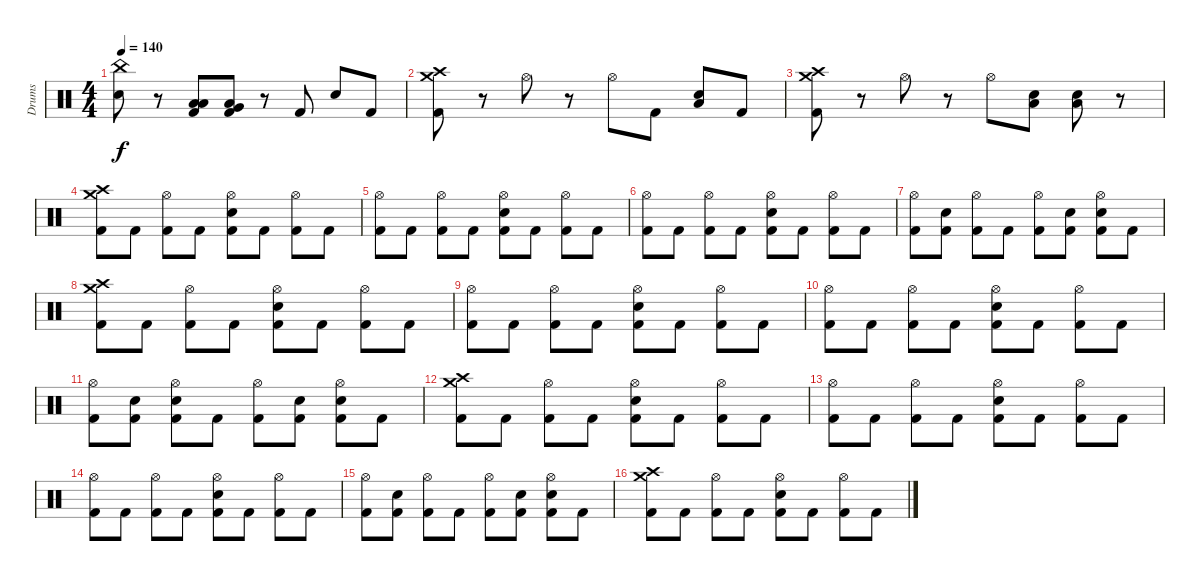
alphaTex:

\track ("Drums" "Drums") {instrument percussion}
\staff {score}
\articulation defaults
\ts (4 4)
\tempo 140
\clef neutral
\ks c
("China (hit)" "Electric Snare (hit)").8{dy f} r.8 ("Low Tom (hit)" "Low Tom (hit)" "Kick (hit) 2").8 ("Very Low Tom (hit)" "Low Tom (hit)" "Kick (hit) 2").8 r.8 "Kick (hit) 2".8 "Electric Snare (hit)".8 "Kick (hit) 2".8 |
("Crash high (hit)" "Crash medium (hit)" "Kick (hit) 2").8 r.8 "Hi-Hat (open)".8 r.8 "Hi-Hat (open)".8 "Kick (hit) 2".8 ("Low Tom (hit)" "Electric Snare (hit)").8 "Kick (hit) 2".8 |
("Crash high (hit)" "Crash medium (hit)" "Kick (hit) 2").8 r.8 "Hi-Hat (open)".8 r.8 "Hi-Hat (open)".8 ("Low Tom (hit)" "Electric Snare (hit)").8 ("Low Tom (hit)" "Electric Snare (hit)").8 r.8 |
("Crash high (hit)" "Crash medium (hit)" "Kick (hit) 2").8 "Kick (hit) 2".8 ("Hi-Hat (open)" "Kick (hit) 2").8 "Kick (hit) 2".8 ("Hi-Hat (open)" "Electric Snare (hit)" "Kick (hit) 2").8 "Kick (hit) 2".8 ("Hi-Hat (open)" "Kick (hit) 2").8 "Kick (hit) 2".8 |
("Hi-Hat (open)" "Kick (hit) 2").8 "Kick (hit) 2".8 ("Hi-Hat (open)" "Kick (hit) 2").8 "Kick (hit) 2".8 ("Hi-Hat (open)" "Electric Snare (hit)" "Kick (hit) 2").8 "Kick (hit) 2".8 ("Hi-Hat (open)" "Kick (hit) 2").8 "Kick (hit) 2".8 |
("Hi-Hat (open)" "Kick (hit) 2").8 "Kick (hit) 2".8 ("Hi-Hat (open)" "Kick (hit) 2").8 "Kick (hit) 2".8 ("Hi-Hat (open)" "Electric Snare (hit)" "Kick (hit) 2").8 "Kick (hit) 2".8 ("Hi-Hat (open)" "Kick (hit) 2").8 "Kick (hit) 2".8 |
("Hi-Hat (open)" "Kick (hit) 2").8 ("Electric Snare (hit)" "Kick (hit) 2").8 ("Hi-Hat (open)" "Kick (hit) 2").8 "Kick (hit) 2".8 ("Hi-Hat (open)" "Kick (hit) 2").8 ("Electric Snare (hit)" "Kick (hit) 2").8 ("Hi-Hat (open)" "Electric Snare (hit)" "Kick (hit) 2").8 "Kick (hit) 2".8 |
("Crash high (hit)" "Crash medium (hit)" "Kick (hit) 2").8 "Kick (hit) 2".8 ("Hi-Hat (open)" "Kick (hit) 2").8 "Kick (hit) 2".8 ("Hi-Hat (open)" "Electric Snare (hit)" "Kick (hit) 2").8 "Kick (hit) 2".8 ("Hi-Hat (open)" "Kick (hit) 2").8 "Kick (hit) 2".8 |
("Hi-Hat (open)" "Kick (hit) 2").8 "Kick (hit) 2".8 ("Hi-Hat (open)" "Kick (hit) 2").8 "Kick (hit) 2".8 ("Hi-Hat (open)" "Electric Snare (hit)" "Kick (hit) 2").8 "Kick (hit) 2".8 ("Hi-Hat (open)" "Kick (hit) 2").8 "Kick (hit) 2".8 |
("Hi-Hat (open)" "Kick (hit) 2").8 "Kick (hit) 2".8 ("Hi-Hat (open)" "Kick (hit) 2").8 "Kick (hit) 2".8 ("Hi-Hat (open)" "Electric Snare (hit)" "Kick (hit) 2").8 "Kick (hit) 2".8 ("Hi-Hat (open)" "Kick (hit) 2").8 "Kick (hit) 2".8 |
("Hi-Hat (open)" "Kick (hit) 2").8 ("Electric Snare (hit)" "Kick (hit) 2").8 ("Hi-Hat (open)" "Electric Snare (hit)" "Kick (hit) 2").8 "Kick (hit) 2".8 ("Hi-Hat (open)" "Kick (hit) 2").8 ("Electric Snare (hit)" "Kick (hit) 2").8 ("Hi-Hat (open)" "Electric Snare (hit)" "Kick (hit) 2").8 "Kick (hit) 2".8 |
("Crash high (hit)" "Crash medium (hit)" "Kick (hit) 2").8 "Kick (hit) 2".8 ("Hi-Hat (open)" "Kick (hit) 2").8 "Kick (hit) 2".8 ("Hi-Hat (open)" "Electric Snare (hit)" "Kick (hit) 2").8 "Kick (hit) 2".8 ("Hi-Hat (open)" "Kick (hit) 2").8 "Kick (hit) 2".8 |
("Hi-Hat (open)" "Kick (hit) 2").8 "Kick (hit) 2".8 ("Hi-Hat (open)" "Kick (hit) 2").8 "Kick (hit) 2".8 ("Hi-Hat (open)" "Electric Snare (hit)" "Kick (hit) 2").8 "Kick (hit) 2".8 ("Hi-Hat (open)" "Kick (hit) 2").8 "Kick (hit) 2".8 |
("Hi-Hat (open)" "Kick (hit) 2").8 "Kick (hit) 2".8 ("Hi-Hat (open)" "Kick (hit) 2").8 "Kick (hit) 2".8 ("Hi-Hat (open)" "Electric Snare (hit)" "Kick (hit) 2").8 "Kick (hit) 2".8 ("Hi-Hat (open)" "Kick (hit) 2").8 "Kick (hit) 2".8 |
("Hi-Hat (open)" "Kick (hit) 2").8 ("Electric Snare (hit)" "Kick (hit) 2").8 ("Hi-Hat (open)" "Kick (hit) 2").8 "Kick (hit) 2".8 ("Hi-Hat (open)" "Kick (hit) 2").8 ("Electric Snare (hit)" "Kick (hit) 2").8 ("Hi-Hat (open)" "Electric Snare (hit)" "Kick (hit) 2").8 "Kick (hit) 2".8 |
("Crash high (hit)" "Crash medium (hit)" "Kick (hit) 2").8 "Kick (hit) 2".8 ("Hi-Hat (open)" "Kick (hit) 2").8 "Kick (hit) 2".8 ("Hi-Hat (open)" "Electric Snare (hit)" "Kick (hit) 2").8 "Kick (hit) 2".8 ("Hi-Hat (open)" "Kick (hit) 2").8 "Kick (hit) 2".8
